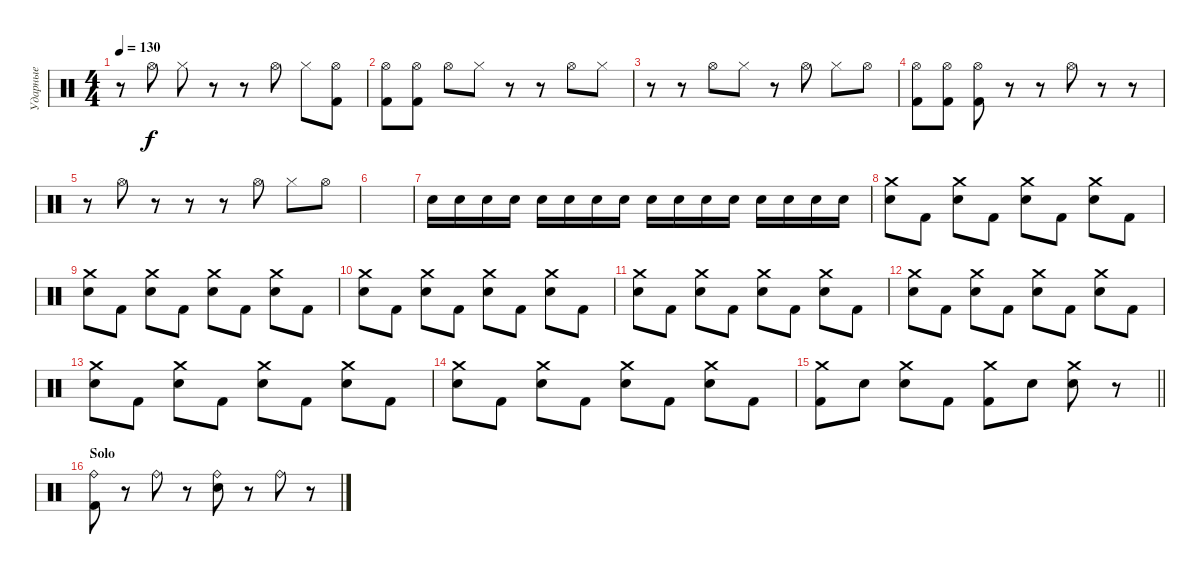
\track ("Ударные" "Ударные") {instrument percussion}
\staff {score}
\articulation defaults
\ts (4 4)
\tempo 130
\clef neutral
\ks c
r.8{dy f} "Hi-Hat (open)".8 "Hi-Hat (closed)".8 r.8 r.8 "Hi-Hat (open)".8 "Hi-Hat (closed)".8 ("Hi-Hat (open)" "Kick (hit) 2").8 |
("Hi-Hat (open)" "Kick (hit) 2").8 ("Hi-Hat (open)" "Kick (hit) 2").8 "Hi-Hat (open)".8 "Hi-Hat (closed)".8 r.8 r.8 "Hi-Hat (open)".8 "Hi-Hat (closed)".8 |
r.8 r.8 "Hi-Hat (open)".8 "Hi-Hat (closed)".8 r.8 "Hi-Hat (open)".8 "Hi-Hat (closed)".8 "Hi-Hat (open)".8 |
("Hi-Hat (open)" "Kick (hit) 2").8 ("Hi-Hat (open)" "Kick (hit) 2").8 ("Hi-Hat (open)" "Kick (hit) 2").8 r.8 r.8 "Hi-Hat (open)".8 r.8 r.8 |
r.8 "Hi-Hat (open)".8 r.8 r.8 r.8 "Hi-Hat (open)".8 "Hi-Hat (closed)".8 "Hi-Hat (open)".8 |
|
"Electric Snare (hit)".16 "Electric Snare (hit)".16 "Electric Snare (hit)".16 "Electric Snare (hit)".16 "Electric Snare (hit)".16 "Electric Snare (hit)".16 "Electric Snare (hit)".16 "Electric Snare (hit)".16 "Electric Snare (hit)".16 "Electric Snare (hit)".16 "Electric Snare (hit)".16 "Electric Snare (hit)".16 "Electric Snare (hit)".16 "Electric Snare (hit)".16 "Electric Snare (hit)".16 "Electric Snare (hit)".16 |
("Crash medium (hit)" "Electric Snare (hit)").8 "Kick (hit) 2".8 ("Crash medium (hit)" "Electric Snare (hit)").8 "Kick (hit) 2".8 ("Crash medium (hit)" "Electric Snare (hit)").8 "Kick (hit) 2".8 ("Crash medium (hit)" "Electric Snare (hit)").8 "Kick (hit) 2".8 |
("Crash medium (hit)" "Electric Snare (hit)").8 "Kick (hit) 2".8 ("Crash medium (hit)" "Electric Snare (hit)").8 "Kick (hit) 2".8 ("Crash medium (hit)" "Electric Snare (hit)").8 "Kick (hit) 2".8 ("Crash medium (hit)" "Electric Snare (hit)").8 "Kick (hit) 2".8 |
("Crash medium (hit)" "Electric Snare (hit)").8 "Kick (hit) 2".8 ("Crash medium (hit)" "Electric Snare (hit)").8 "Kick (hit) 2".8 ("Crash medium (hit)" "Electric Snare (hit)").8 "Kick (hit) 2".8 ("Crash medium (hit)" "Electric Snare (hit)").8 "Kick (hit) 2".8 |
("Crash medium (hit)" "Electric Snare (hit)").8 "Kick (hit) 2".8 ("Crash medium (hit)" "Electric Snare (hit)").8 "Kick (hit) 2".8 ("Crash medium (hit)" "Electric Snare (hit)").8 "Kick (hit) 2".8 ("Crash medium (hit)" "Electric Snare (hit)").8 "Kick (hit) 2".8 |
("Crash medium (hit)" "Electric Snare (hit)").8 "Kick (hit) 2".8 ("Crash medium (hit)" "Electric Snare (hit)").8 "Kick (hit) 2".8 ("Crash medium (hit)" "Electric Snare (hit)").8 "Kick (hit) 2".8 ("Crash medium (hit)" "Electric Snare (hit)").8 "Kick (hit) 2".8 |
("Crash medium (hit)" "Electric Snare (hit)").8 "Kick (hit) 2".8 ("Crash medium (hit)" "Electric Snare (hit)").8 "Kick (hit) 2".8 ("Crash medium (hit)" "Electric Snare (hit)").8 "Kick (hit) 2".8 ("Crash medium (hit)" "Electric Snare (hit)").8 "Kick (hit) 2".8 |
("Crash medium (hit)" "Electric Snare (hit)").8 "Kick (hit) 2".8 ("Crash medium (hit)" "Electric Snare (hit)").8 "Kick (hit) 2".8 ("Crash medium (hit)" "Electric Snare (hit)").8 "Kick (hit) 2".8 ("Crash medium (hit)" "Electric Snare (hit)").8 "Kick (hit) 2".8 |
\barLineRight lightlight
("Crash medium (hit)" "Kick (hit) 2").8 "Electric Snare (hit)".8 ("Crash medium (hit)" "Electric Snare (hit)").8 "Kick (hit) 2".8 ("Crash medium (hit)" "Kick (hit) 2").8 "Electric Snare (hit)".8 ("Crash medium (hit)" "Electric Snare (hit)").8 r.8 |
\section ("" "Solo")
("Ride (bell)" "Kick (hit) 2").8 r.8 "Ride (bell)".8 r.8 ("Ride (bell)" "Electric Snare (hit)").8 r.8 "Ride (bell)".8 r.8
